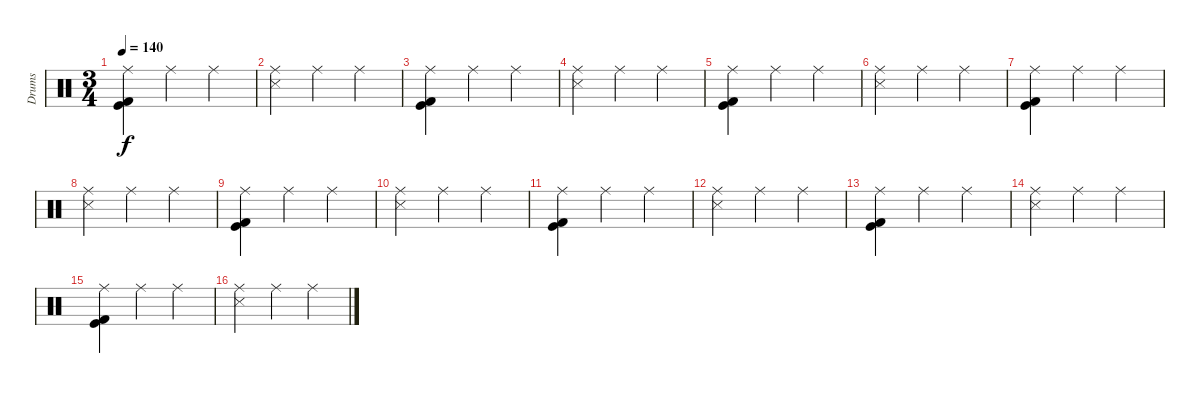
\track ("Drums" "Drums") {instrument percussion}
\staff {score}
\articulation defaults
\ts (3 4)
\tempo 140
\clef neutral
\ks c
("Ride (middle)" "Kick (hit) 2" "Kick (hit)").4{dy f} "Ride (middle)".4 "Ride (middle)".4{volume 6} |
("Ride (middle)" "Snare (side stick) 3").4 "Ride (middle)".4 "Ride (middle)".4 |
("Ride (middle)" "Kick (hit) 2" "Kick (hit)").4 "Ride (middle)".4 "Ride (middle)".4 |
("Ride (middle)" "Snare (side stick) 3").4 "Ride (middle)".4 "Ride (middle)".4 |
("Ride (middle)" "Kick (hit) 2" "Kick (hit)").4 "Ride (middle)".4 "Ride (middle)".4 |
("Ride (middle)" "Snare (side stick) 3").4 "Ride (middle)".4 "Ride (middle)".4 |
("Ride (middle)" "Kick (hit) 2" "Kick (hit)").4{volume 4} "Ride (middle)".4 "Ride (middle)".4 |
("Ride (middle)" "Snare (side stick) 3").4 "Ride (middle)".4 "Ride (middle)".4 |
("Ride (middle)" "Kick (hit) 2" "Kick (hit)").4 "Ride (middle)".4 "Ride (middle)".4 |
("Ride (middle)" "Snare (side stick) 3").4 "Ride (middle)".4 "Ride (middle)".4 |
("Ride (middle)" "Kick (hit) 2" "Kick (hit)").4 "Ride (middle)".4 "Ride (middle)".4 |
("Ride (middle)" "Snare (side stick) 3").4 "Ride (middle)".4{volume 2} "Ride (middle)".4 |
("Ride (middle)" "Kick (hit) 2" "Kick (hit)").4 "Ride (middle)".4 "Ride (middle)".4 |
("Ride (middle)" "Snare (side stick) 3").4 "Ride (middle)".4 "Ride (middle)".4 |
("Ride (middle)" "Kick (hit) 2" "Kick (hit)").4 "Ride (middle)".4 "Ride (middle)".4 |
("Ride (middle)" "Snare (side stick) 3").4 "Ride (middle)".4 "Ride (middle)".4
